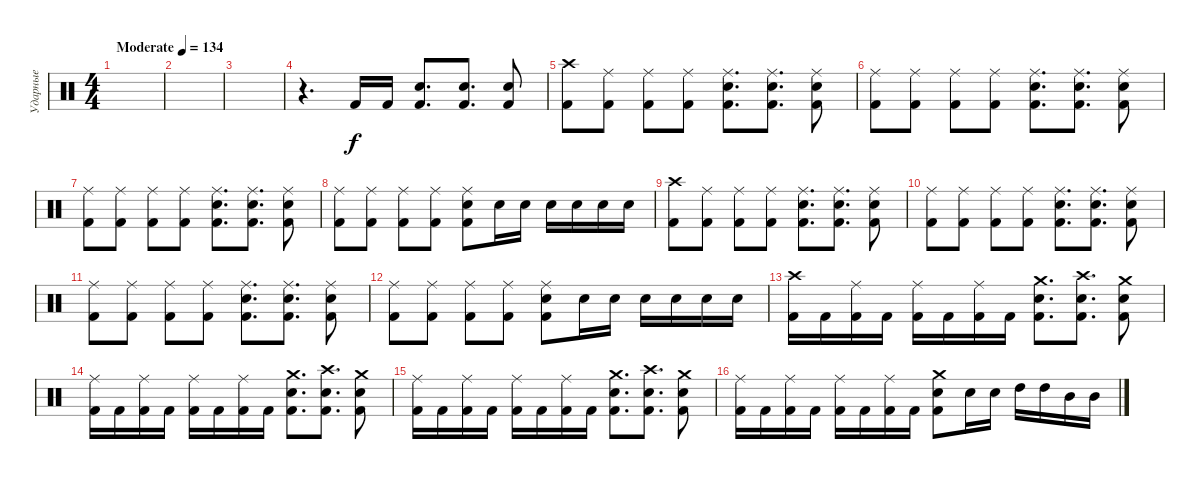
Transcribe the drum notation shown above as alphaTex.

\track ("Ударные" "Ударные") {instrument percussion}
\staff {score}
\articulation defaults
\ts (4 4)
\tempo (134 "Moderate")
\clef neutral
\ks c
|
|
|
r.4{d} "Kick (hit) 2".16 "Kick (hit) 2".16 ("Electric Snare (hit)" "Kick (hit) 2").8{d} ("Electric Snare (hit)" "Kick (hit) 2").8{d} ("Electric Snare (hit)" "Kick (hit) 2").8 |
("Crash high (hit)" "Kick (hit) 2").8 ("Ride (middle)" "Kick (hit) 2").8 ("Ride (middle)" "Kick (hit) 2").8 ("Ride (middle)" "Kick (hit) 2").8 ("Ride (middle)" "Electric Snare (hit)" "Kick (hit) 2").8{d} ("Ride (middle)" "Electric Snare (hit)" "Kick (hit) 2").8{d} ("Ride (middle)" "Electric Snare (hit)" "Kick (hit) 2").8 |
("Ride (middle)" "Kick (hit) 2").8 ("Ride (middle)" "Kick (hit) 2").8 ("Ride (middle)" "Kick (hit) 2").8 ("Ride (middle)" "Kick (hit) 2").8 ("Ride (middle)" "Electric Snare (hit)" "Kick (hit) 2").8{d} ("Ride (middle)" "Electric Snare (hit)" "Kick (hit) 2").8{d} ("Ride (middle)" "Electric Snare (hit)" "Kick (hit) 2").8 |
("Ride (middle)" "Kick (hit) 2").8 ("Ride (middle)" "Kick (hit) 2").8 ("Ride (middle)" "Kick (hit) 2").8 ("Ride (middle)" "Kick (hit) 2").8 ("Ride (middle)" "Electric Snare (hit)" "Kick (hit) 2").8{d} ("Ride (middle)" "Electric Snare (hit)" "Kick (hit) 2").8{d} ("Ride (middle)" "Electric Snare (hit)" "Kick (hit) 2").8 |
("Ride (middle)" "Kick (hit) 2").8 ("Ride (middle)" "Kick (hit) 2").8 ("Ride (middle)" "Kick (hit) 2").8 ("Ride (middle)" "Kick (hit) 2").8 ("Ride (middle)" "Electric Snare (hit)" "Kick (hit) 2").8 "Electric Snare (hit)".16 "Electric Snare (hit)".16 "Electric Snare (hit)".16 "Electric Snare (hit)".16 "Electric Snare (hit)".16 "Electric Snare (hit)".16 |
("Crash high (hit)" "Kick (hit) 2").8 ("Ride (middle)" "Kick (hit) 2").8 ("Ride (middle)" "Kick (hit) 2").8 ("Ride (middle)" "Kick (hit) 2").8 ("Ride (middle)" "Electric Snare (hit)" "Kick (hit) 2").8{d} ("Ride (middle)" "Electric Snare (hit)" "Kick (hit) 2").8{d} ("Ride (middle)" "Electric Snare (hit)" "Kick (hit) 2").8 |
("Ride (middle)" "Kick (hit) 2").8 ("Ride (middle)" "Kick (hit) 2").8 ("Ride (middle)" "Kick (hit) 2").8 ("Ride (middle)" "Kick (hit) 2").8 ("Ride (middle)" "Electric Snare (hit)" "Kick (hit) 2").8{d} ("Ride (middle)" "Electric Snare (hit)" "Kick (hit) 2").8{d} ("Ride (middle)" "Electric Snare (hit)" "Kick (hit) 2").8 |
("Ride (middle)" "Kick (hit) 2").8 ("Ride (middle)" "Kick (hit) 2").8 ("Ride (middle)" "Kick (hit) 2").8 ("Ride (middle)" "Kick (hit) 2").8 ("Ride (middle)" "Electric Snare (hit)" "Kick (hit) 2").8{d} ("Ride (middle)" "Electric Snare (hit)" "Kick (hit) 2").8{d} ("Ride (middle)" "Electric Snare (hit)" "Kick (hit) 2").8 |
("Ride (middle)" "Kick (hit) 2").8 ("Ride (middle)" "Kick (hit) 2").8 ("Ride (middle)" "Kick (hit) 2").8 ("Ride (middle)" "Kick (hit) 2").8 ("Ride (middle)" "Electric Snare (hit)" "Kick (hit) 2").8 "Electric Snare (hit)".16 "Electric Snare (hit)".16 "Electric Snare (hit)".16 "Electric Snare (hit)".16 "Electric Snare (hit)".16 "Electric Snare (hit)".16 |
("Crash high (hit)" "Kick (hit) 2").16 "Kick (hit) 2".16 ("Ride (middle)" "Kick (hit) 2").16 "Kick (hit) 2".16 ("Ride (middle)" "Kick (hit) 2").16 "Kick (hit) 2".16 ("Ride (middle)" "Kick (hit) 2").16 "Kick (hit) 2".16 ("Crash medium (hit)" "Electric Snare (hit)" "Kick (hit) 2").8{d} ("Crash high (hit)" "Electric Snare (hit)" "Kick (hit) 2").8{d} ("Crash medium (hit)" "Electric Snare (hit)" "Kick (hit) 2").8 |
("Ride (middle)" "Kick (hit) 2").16 "Kick (hit) 2".16 ("Ride (middle)" "Kick (hit) 2").16 "Kick (hit) 2".16 ("Ride (middle)" "Kick (hit) 2").16 "Kick (hit) 2".16 ("Ride (middle)" "Kick (hit) 2").16 "Kick (hit) 2".16 ("Crash medium (hit)" "Electric Snare (hit)" "Kick (hit) 2").8{d} ("Crash high (hit)" "Electric Snare (hit)" "Kick (hit) 2").8{d} ("Crash medium (hit)" "Electric Snare (hit)" "Kick (hit) 2").8 |
("Ride (middle)" "Kick (hit) 2").16 "Kick (hit) 2".16 ("Ride (middle)" "Kick (hit) 2").16 "Kick (hit) 2".16 ("Ride (middle)" "Kick (hit) 2").16 "Kick (hit) 2".16 ("Ride (middle)" "Kick (hit) 2").16 "Kick (hit) 2".16 ("Crash medium (hit)" "Electric Snare (hit)" "Kick (hit) 2").8{d} ("Crash high (hit)" "Electric Snare (hit)" "Kick (hit) 2").8{d} ("Crash medium (hit)" "Electric Snare (hit)" "Kick (hit) 2").8 |
("Ride (middle)" "Kick (hit) 2").16 "Kick (hit) 2".16 ("Ride (middle)" "Kick (hit) 2").16 "Kick (hit) 2".16 ("Ride (middle)" "Kick (hit) 2").16 "Kick (hit) 2".16 ("Ride (middle)" "Kick (hit) 2").16 "Kick (hit) 2".16 ("Crash medium (hit)" "Electric Snare (hit)" "Kick (hit) 2").8 "Electric Snare (hit)".16 "Electric Snare (hit)".16 "High Tom (hit)".16 "High Tom (hit)".16 "Mid Tom (hit)".16 "Mid Tom (hit)".16
